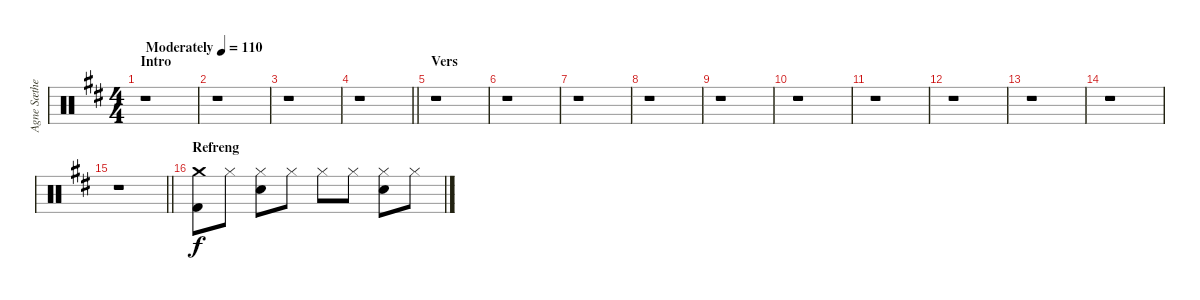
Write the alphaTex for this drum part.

\track ("Agne Sæther - Trommer" "Agne Sæthe") {instrument percussion}
\staff {score}
\articulation defaults
\ts (4 4)
\section ("" "Intro")
\tempo (110 "Moderately")
\clef neutral
\ks d
r.1{dy f} |
r.1 |
r.1 |
\barLineRight lightlight
r.1 |
\section ("" "Vers")
r.1 |
r.1 |
r.1 |
r.1 |
r.1 |
r.1 |
r.1 |
r.1 |
r.1 |
r.1 |
\barLineRight lightlight
r.1 |
\section ("" "Refreng")
("Crash medium (hit)" "Kick (hit) 2").8 "Hi-Hat (closed)".8 ("Hi-Hat (closed)" "Electric Snare (hit)").8 "Hi-Hat (closed)".8 "Hi-Hat (closed)".8 "Hi-Hat (closed)".8 ("Hi-Hat (closed)" "Electric Snare (hit)").8 "Hi-Hat (closed)".8
